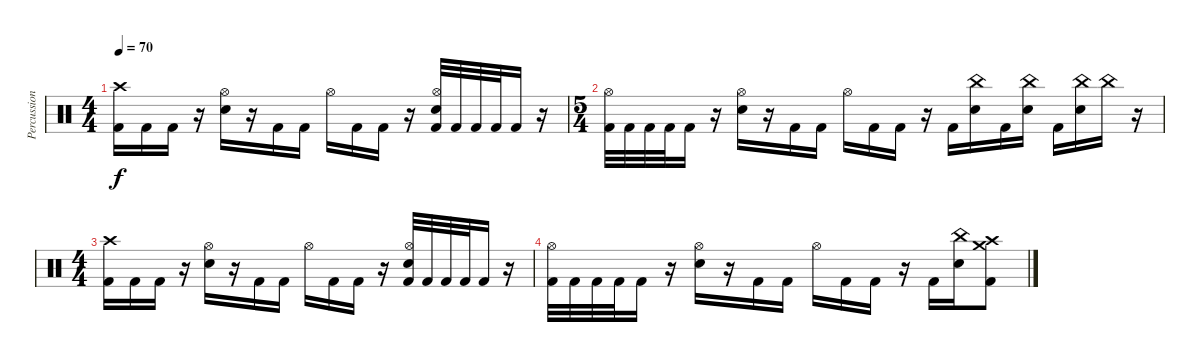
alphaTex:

\track ("Percussion" "Percussion") {instrument percussion}
\staff {score}
\articulation defaults
\ts (4 4)
\tempo 70
\clef neutral
\ks c
("Crash high (hit)" "Kick (hit) 2").16{dy f} "Kick (hit) 2".16 "Kick (hit) 2".16 r.16 ("Hi-Hat (open)" "Snare (hit) 2").16 r.16 "Kick (hit) 2".16 "Kick (hit) 2".16 "Hi-Hat (open)".16 "Kick (hit) 2".16 "Kick (hit) 2".16 r.16 ("Hi-Hat (open)" "Snare (hit) 2" "Kick (hit) 2").32 "Kick (hit) 2".32 "Kick (hit) 2".32 "Kick (hit) 2".32 "Kick (hit) 2".16 r.16 |
\ts (5 4)
("Hi-Hat (open)" "Kick (hit) 2").32 "Kick (hit) 2".32 "Kick (hit) 2".32 "Kick (hit) 2".32 "Kick (hit) 2".16 r.16 ("Hi-Hat (open)" "Snare (hit) 2").16 r.16 "Kick (hit) 2".16 "Kick (hit) 2".16 "Hi-Hat (open)".16 "Kick (hit) 2".16 "Kick (hit) 2".16 r.16 "Kick (hit) 2".16 ("China (hit)" "Snare (hit) 2").16 "Kick (hit) 2".16 ("China (hit)" "Snare (hit) 2").16 "Kick (hit) 2".16 ("China (hit)" "Snare (hit) 2").16 "China (hit)".16 r.16 |
\ts (4 4)
("Crash high (hit)" "Kick (hit) 2").16 "Kick (hit) 2".16 "Kick (hit) 2".16 r.16 ("Hi-Hat (open)" "Snare (hit) 2").16 r.16 "Kick (hit) 2".16 "Kick (hit) 2".16 "Hi-Hat (open)".16 "Kick (hit) 2".16 "Kick (hit) 2".16 r.16 ("Hi-Hat (open)" "Snare (hit) 2" "Kick (hit) 2").32 "Kick (hit) 2".32 "Kick (hit) 2".32 "Kick (hit) 2".32 "Kick (hit) 2".16 r.16 |
("Hi-Hat (open)" "Kick (hit) 2").32 "Kick (hit) 2".32 "Kick (hit) 2".32 "Kick (hit) 2".32 "Kick (hit) 2".16 r.16 ("Hi-Hat (open)" "Snare (hit) 2").16 r.16 "Kick (hit) 2".16 "Kick (hit) 2".16 "Hi-Hat (open)".16 "Kick (hit) 2".16 "Kick (hit) 2".16 r.16 "Kick (hit) 2".16 ("China (hit)" "Snare (hit) 2").16 ("Crash high (hit)" "Crash medium (hit)" "Kick (hit) 2").8{volume 0}
